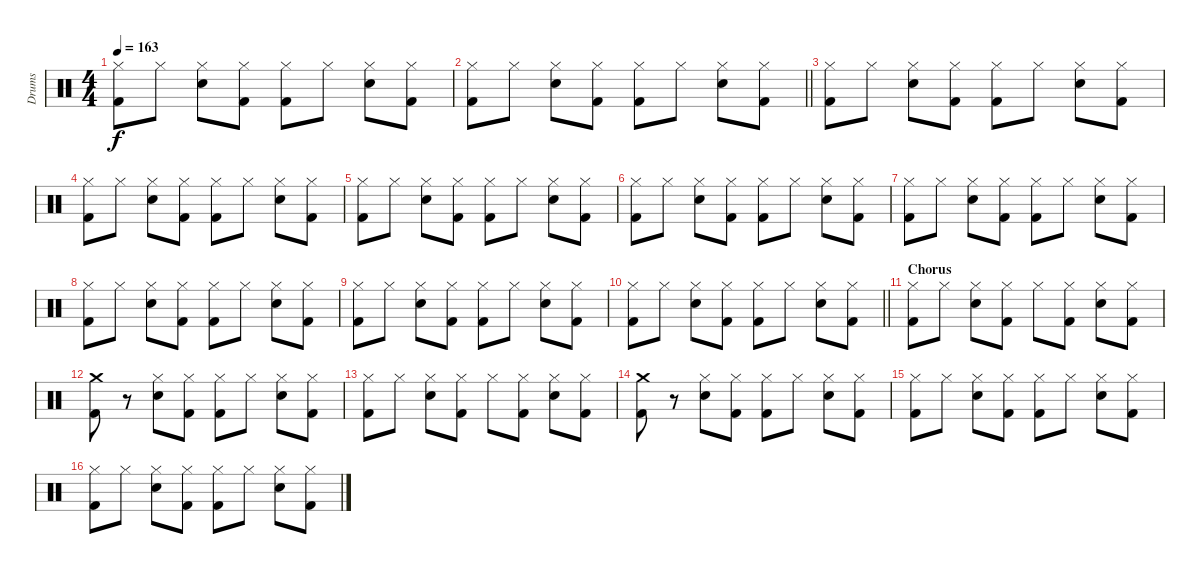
\track ("Drums" "Drums") {instrument percussion}
\staff {score}
\articulation defaults
\ts (4 4)
\tempo 163
\clef neutral
\ks c
("Hi-Hat (closed)" "Kick (hit) 2").8{dy f} "Hi-Hat (closed)".8 ("Hi-Hat (closed)" "Snare (hit) 2").8 ("Hi-Hat (closed)" "Kick (hit) 2").8 ("Hi-Hat (closed)" "Kick (hit) 2").8 "Hi-Hat (closed)".8 ("Hi-Hat (closed)" "Snare (hit) 2").8 ("Hi-Hat (closed)" "Kick (hit) 2").8 |
\barLineRight lightlight
("Hi-Hat (closed)" "Kick (hit) 2").8 "Hi-Hat (closed)".8 ("Hi-Hat (closed)" "Snare (hit) 2").8 ("Hi-Hat (closed)" "Kick (hit) 2").8 ("Hi-Hat (closed)" "Kick (hit) 2").8 "Hi-Hat (closed)".8 ("Hi-Hat (closed)" "Snare (hit) 2").8 ("Hi-Hat (closed)" "Kick (hit) 2").8 |
("Hi-Hat (closed)" "Kick (hit) 2").8 "Hi-Hat (closed)".8 ("Hi-Hat (closed)" "Snare (hit) 2").8 ("Hi-Hat (closed)" "Kick (hit) 2").8 ("Hi-Hat (closed)" "Kick (hit) 2").8 "Hi-Hat (closed)".8 ("Hi-Hat (closed)" "Snare (hit) 2").8 ("Hi-Hat (closed)" "Kick (hit) 2").8 |
("Hi-Hat (closed)" "Kick (hit) 2").8 "Hi-Hat (closed)".8 ("Hi-Hat (closed)" "Snare (hit) 2").8 ("Hi-Hat (closed)" "Kick (hit) 2").8 ("Hi-Hat (closed)" "Kick (hit) 2").8 "Hi-Hat (closed)".8 ("Hi-Hat (closed)" "Snare (hit) 2").8 ("Hi-Hat (closed)" "Kick (hit) 2").8 |
("Hi-Hat (closed)" "Kick (hit) 2").8 "Hi-Hat (closed)".8 ("Hi-Hat (closed)" "Snare (hit) 2").8 ("Hi-Hat (closed)" "Kick (hit) 2").8 ("Hi-Hat (closed)" "Kick (hit) 2").8 "Hi-Hat (closed)".8 ("Hi-Hat (closed)" "Snare (hit) 2").8 ("Hi-Hat (closed)" "Kick (hit) 2").8 |
("Hi-Hat (closed)" "Kick (hit) 2").8 "Hi-Hat (closed)".8 ("Hi-Hat (closed)" "Snare (hit) 2").8 ("Hi-Hat (closed)" "Kick (hit) 2").8 ("Hi-Hat (closed)" "Kick (hit) 2").8 "Hi-Hat (closed)".8 ("Hi-Hat (closed)" "Snare (hit) 2").8 ("Hi-Hat (closed)" "Kick (hit) 2").8 |
("Hi-Hat (closed)" "Kick (hit) 2").8 "Hi-Hat (closed)".8 ("Hi-Hat (closed)" "Snare (hit) 2").8 ("Hi-Hat (closed)" "Kick (hit) 2").8 ("Hi-Hat (closed)" "Kick (hit) 2").8 "Hi-Hat (closed)".8 ("Hi-Hat (closed)" "Snare (hit) 2").8 ("Hi-Hat (closed)" "Kick (hit) 2").8 |
("Hi-Hat (closed)" "Kick (hit) 2").8 "Hi-Hat (closed)".8 ("Hi-Hat (closed)" "Snare (hit) 2").8 ("Hi-Hat (closed)" "Kick (hit) 2").8 ("Hi-Hat (closed)" "Kick (hit) 2").8 "Hi-Hat (closed)".8 ("Hi-Hat (closed)" "Snare (hit) 2").8 ("Hi-Hat (closed)" "Kick (hit) 2").8 |
("Hi-Hat (closed)" "Kick (hit) 2").8 "Hi-Hat (closed)".8 ("Hi-Hat (closed)" "Snare (hit) 2").8 ("Hi-Hat (closed)" "Kick (hit) 2").8 ("Hi-Hat (closed)" "Kick (hit) 2").8 "Hi-Hat (closed)".8 ("Hi-Hat (closed)" "Snare (hit) 2").8 ("Hi-Hat (closed)" "Kick (hit) 2").8 |
\barLineRight lightlight
("Hi-Hat (closed)" "Kick (hit) 2").8 "Hi-Hat (closed)".8 ("Hi-Hat (closed)" "Snare (hit) 2").8 ("Hi-Hat (closed)" "Kick (hit) 2").8 ("Hi-Hat (closed)" "Kick (hit) 2").8 "Hi-Hat (closed)".8 ("Hi-Hat (closed)" "Snare (hit) 2").8 ("Hi-Hat (closed)" "Kick (hit) 2").8 |
\section ("" "Chorus")
("Hi-Hat (closed)" "Kick (hit) 2").8 "Hi-Hat (closed)".8 ("Hi-Hat (closed)" "Snare (hit) 2").8 ("Hi-Hat (closed)" "Kick (hit) 2").8 "Hi-Hat (closed)".8 ("Hi-Hat (closed)" "Kick (hit) 2").8 ("Hi-Hat (closed)" "Snare (hit) 2").8 ("Hi-Hat (closed)" "Kick (hit) 2").8 |
("Crash medium (hit)" "Kick (hit) 2").8 r.8 ("Hi-Hat (closed)" "Snare (hit) 2").8 ("Hi-Hat (closed)" "Kick (hit) 2").8 ("Hi-Hat (closed)" "Kick (hit) 2").8 "Hi-Hat (closed)".8 ("Hi-Hat (closed)" "Snare (hit) 2").8 ("Hi-Hat (closed)" "Kick (hit) 2").8 |
("Hi-Hat (closed)" "Kick (hit) 2").8 "Hi-Hat (closed)".8 ("Hi-Hat (closed)" "Snare (hit) 2").8 ("Hi-Hat (closed)" "Kick (hit) 2").8 "Hi-Hat (closed)".8 ("Hi-Hat (closed)" "Kick (hit) 2").8 ("Hi-Hat (closed)" "Snare (hit) 2").8 ("Hi-Hat (closed)" "Kick (hit) 2").8 |
("Crash medium (hit)" "Kick (hit) 2").8 r.8 ("Hi-Hat (closed)" "Snare (hit) 2").8 ("Hi-Hat (closed)" "Kick (hit) 2").8 ("Hi-Hat (closed)" "Kick (hit) 2").8 "Hi-Hat (closed)".8 ("Hi-Hat (closed)" "Snare (hit) 2").8 ("Hi-Hat (closed)" "Kick (hit) 2").8 |
("Hi-Hat (closed)" "Kick (hit) 2").8 "Hi-Hat (closed)".8 ("Hi-Hat (closed)" "Snare (hit) 2").8 ("Hi-Hat (closed)" "Kick (hit) 2").8 ("Hi-Hat (closed)" "Kick (hit) 2").8 "Hi-Hat (closed)".8 ("Hi-Hat (closed)" "Snare (hit) 2").8 ("Hi-Hat (closed)" "Kick (hit) 2").8 |
("Hi-Hat (closed)" "Kick (hit) 2").8 "Hi-Hat (closed)".8 ("Hi-Hat (closed)" "Snare (hit) 2").8 ("Hi-Hat (closed)" "Kick (hit) 2").8 ("Hi-Hat (closed)" "Kick (hit) 2").8 "Hi-Hat (closed)".8 ("Hi-Hat (closed)" "Snare (hit) 2").8 ("Hi-Hat (closed)" "Kick (hit) 2").8
